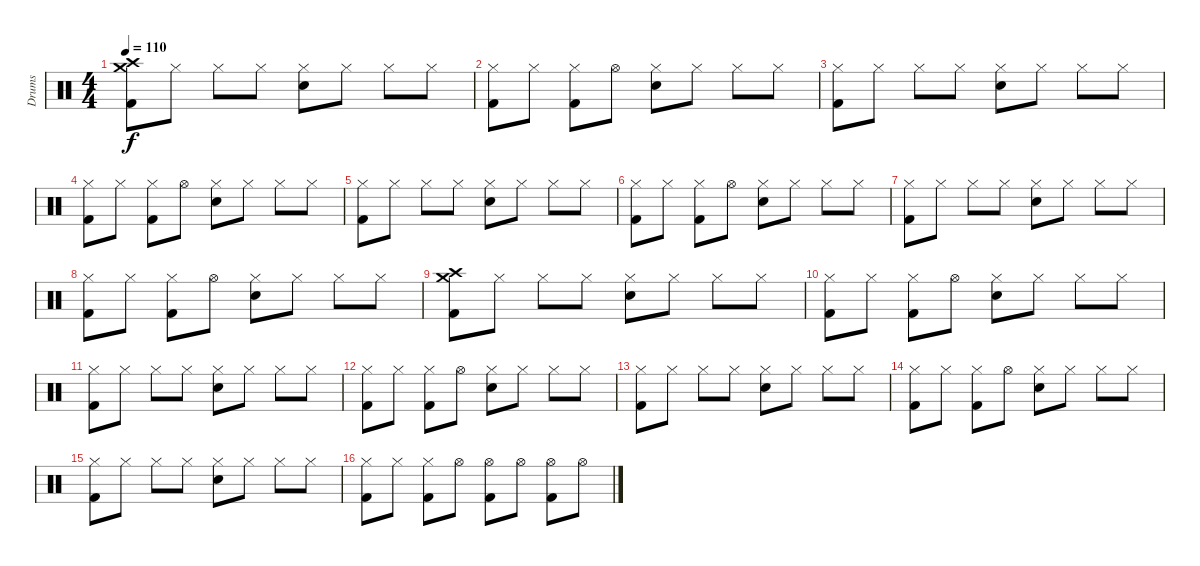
\track ("Drums" "Drums") {instrument percussion}
\staff {score}
\articulation defaults
\ts (4 4)
\tempo 110
\clef neutral
\ks c
("Crash medium (hit)" "Crash high (hit)" "Kick (hit) 2").8{dy f} "Hi-Hat (closed)".8 "Hi-Hat (closed)".8 "Hi-Hat (closed)".8 ("Hi-Hat (closed)" "Snare (hit) 2").8 "Hi-Hat (closed)".8 "Hi-Hat (closed)".8 "Hi-Hat (closed)".8 |
("Hi-Hat (closed)" "Kick (hit) 2").8 "Hi-Hat (closed)".8 ("Hi-Hat (closed)" "Kick (hit) 2").8 "Hi-Hat (open)".8 ("Hi-Hat (closed)" "Snare (hit) 2").8 "Hi-Hat (closed)".8 "Hi-Hat (closed)".8 "Hi-Hat (closed)".8 |
("Hi-Hat (closed)" "Kick (hit) 2").8 "Hi-Hat (closed)".8 "Hi-Hat (closed)".8 "Hi-Hat (closed)".8 ("Hi-Hat (closed)" "Snare (hit) 2").8 "Hi-Hat (closed)".8 "Hi-Hat (closed)".8 "Hi-Hat (closed)".8 |
("Hi-Hat (closed)" "Kick (hit) 2").8 "Hi-Hat (closed)".8 ("Hi-Hat (closed)" "Kick (hit) 2").8 "Hi-Hat (open)".8 ("Hi-Hat (closed)" "Snare (hit) 2").8 "Hi-Hat (closed)".8 "Hi-Hat (closed)".8 "Hi-Hat (closed)".8 |
("Hi-Hat (closed)" "Kick (hit) 2").8 "Hi-Hat (closed)".8 "Hi-Hat (closed)".8 "Hi-Hat (closed)".8 ("Hi-Hat (closed)" "Snare (hit) 2").8 "Hi-Hat (closed)".8 "Hi-Hat (closed)".8 "Hi-Hat (closed)".8 |
("Hi-Hat (closed)" "Kick (hit) 2").8 "Hi-Hat (closed)".8 ("Hi-Hat (closed)" "Kick (hit) 2").8 "Hi-Hat (open)".8 ("Hi-Hat (closed)" "Snare (hit) 2").8 "Hi-Hat (closed)".8 "Hi-Hat (closed)".8 "Hi-Hat (closed)".8 |
("Hi-Hat (closed)" "Kick (hit) 2").8 "Hi-Hat (closed)".8 "Hi-Hat (closed)".8 "Hi-Hat (closed)".8 ("Hi-Hat (closed)" "Snare (hit) 2").8 "Hi-Hat (closed)".8 "Hi-Hat (closed)".8 "Hi-Hat (closed)".8 |
("Hi-Hat (closed)" "Kick (hit) 2").8 "Hi-Hat (closed)".8 ("Hi-Hat (closed)" "Kick (hit) 2").8 "Hi-Hat (open)".8 ("Hi-Hat (closed)" "Snare (hit) 2").8 "Hi-Hat (closed)".8 "Hi-Hat (closed)".8 "Hi-Hat (closed)".8 |
("Crash medium (hit)" "Crash high (hit)" "Kick (hit) 2").8 "Hi-Hat (closed)".8 "Hi-Hat (closed)".8 "Hi-Hat (closed)".8 ("Hi-Hat (closed)" "Snare (hit) 2").8 "Hi-Hat (closed)".8 "Hi-Hat (closed)".8 "Hi-Hat (closed)".8 |
("Hi-Hat (closed)" "Kick (hit) 2").8 "Hi-Hat (closed)".8 ("Hi-Hat (closed)" "Kick (hit) 2").8 "Hi-Hat (open)".8 ("Hi-Hat (closed)" "Snare (hit) 2").8 "Hi-Hat (closed)".8 "Hi-Hat (closed)".8 "Hi-Hat (closed)".8 |
("Hi-Hat (closed)" "Kick (hit) 2").8 "Hi-Hat (closed)".8 "Hi-Hat (closed)".8 "Hi-Hat (closed)".8 ("Hi-Hat (closed)" "Snare (hit) 2").8 "Hi-Hat (closed)".8 "Hi-Hat (closed)".8 "Hi-Hat (closed)".8 |
("Hi-Hat (closed)" "Kick (hit) 2").8 "Hi-Hat (closed)".8 ("Hi-Hat (closed)" "Kick (hit) 2").8 "Hi-Hat (open)".8 ("Hi-Hat (closed)" "Snare (hit) 2").8 "Hi-Hat (closed)".8 "Hi-Hat (closed)".8 "Hi-Hat (closed)".8 |
("Hi-Hat (closed)" "Kick (hit) 2").8 "Hi-Hat (closed)".8 "Hi-Hat (closed)".8 "Hi-Hat (closed)".8 ("Hi-Hat (closed)" "Snare (hit) 2").8 "Hi-Hat (closed)".8 "Hi-Hat (closed)".8 "Hi-Hat (closed)".8 |
("Hi-Hat (closed)" "Kick (hit) 2").8 "Hi-Hat (closed)".8 ("Hi-Hat (closed)" "Kick (hit) 2").8 "Hi-Hat (open)".8 ("Hi-Hat (closed)" "Snare (hit) 2").8 "Hi-Hat (closed)".8 "Hi-Hat (closed)".8 "Hi-Hat (closed)".8 |
("Hi-Hat (closed)" "Kick (hit) 2").8 "Hi-Hat (closed)".8 "Hi-Hat (closed)".8 "Hi-Hat (closed)".8 ("Hi-Hat (closed)" "Snare (hit) 2").8 "Hi-Hat (closed)".8 "Hi-Hat (closed)".8 "Hi-Hat (closed)".8 |
("Hi-Hat (closed)" "Kick (hit) 2").8 "Hi-Hat (closed)".8 ("Hi-Hat (closed)" "Kick (hit) 2").8 "Hi-Hat (open)".8 ("Hi-Hat (open)" "Kick (hit) 2").8 "Hi-Hat (open)".8 ("Hi-Hat (open)" "Kick (hit) 2").8 "Hi-Hat (open)".8
